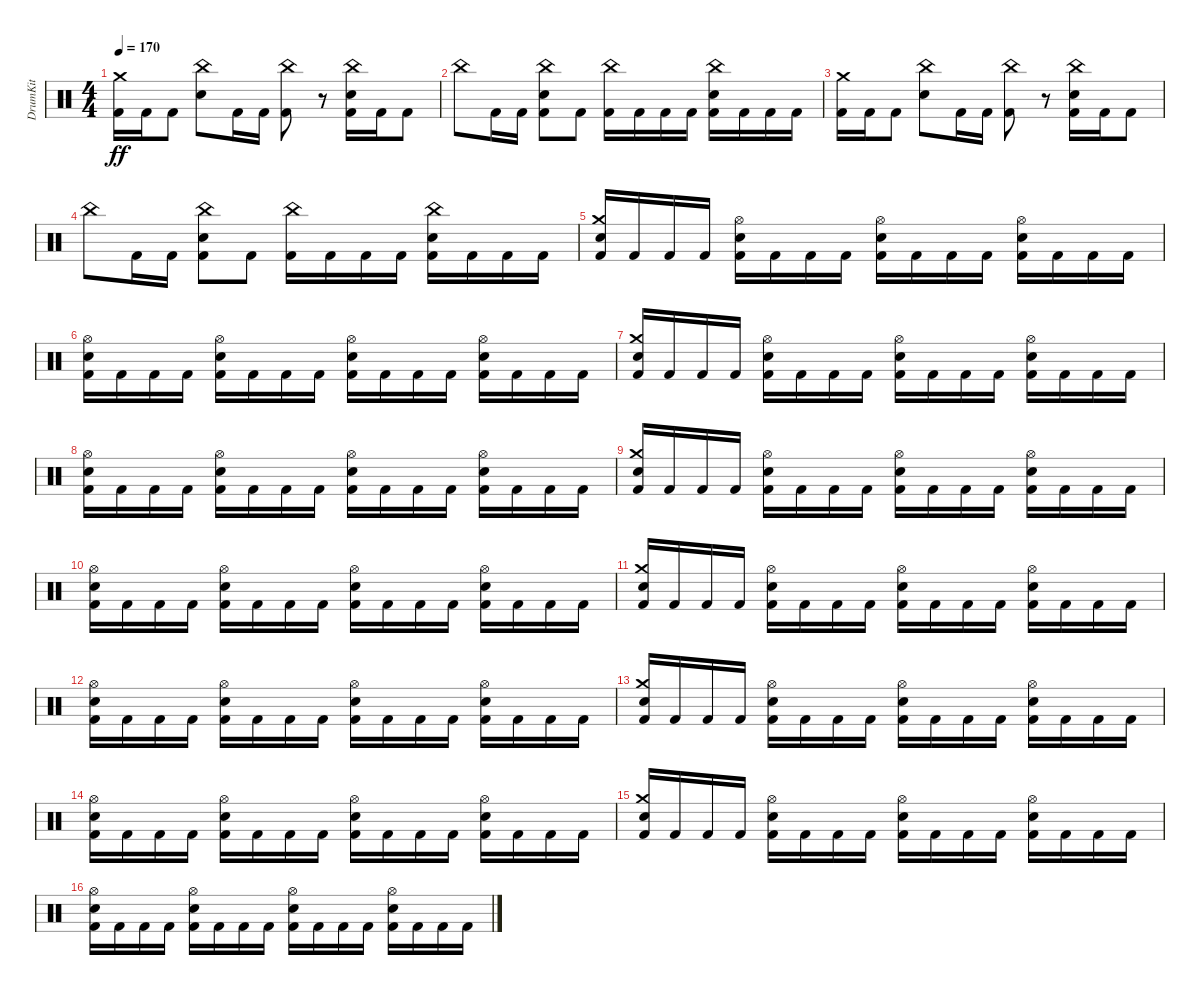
\track ("DrumKit" "DrumKit") {instrument percussion}
\staff {score}
\articulation defaults
\ts (4 4)
\tempo 170
\clef neutral
\ks c
("Kick (hit) 2" "Crash medium (hit)").16{dy ff} "Kick (hit) 2".16 "Kick (hit) 2".8 ("Snare (hit) 2" "China (hit)").8 "Kick (hit) 2".16 "Kick (hit) 2".16 ("Kick (hit) 2" "China (hit)").8 r.8 ("Kick (hit) 2" "Snare (hit) 2" "China (hit)").16 "Kick (hit) 2".16 "Kick (hit) 2".8 |
"China (hit)".8 "Kick (hit) 2".16 "Kick (hit) 2".16 ("Kick (hit) 2" "Snare (hit) 2" "China (hit)").8 "Kick (hit) 2".8 ("Kick (hit) 2" "China (hit)").16 "Kick (hit) 2".16 "Kick (hit) 2".16 "Kick (hit) 2".16 ("Kick (hit) 2" "Snare (hit) 2" "China (hit)").16 "Kick (hit) 2".16 "Kick (hit) 2".16 "Kick (hit) 2".16 |
("Kick (hit) 2" "Crash medium (hit)").16 "Kick (hit) 2".16 "Kick (hit) 2".8 ("Snare (hit) 2" "China (hit)").8 "Kick (hit) 2".16 "Kick (hit) 2".16 ("Kick (hit) 2" "China (hit)").8 r.8 ("Kick (hit) 2" "Snare (hit) 2" "China (hit)").16 "Kick (hit) 2".16 "Kick (hit) 2".8 |
"China (hit)".8 "Kick (hit) 2".16 "Kick (hit) 2".16 ("Kick (hit) 2" "Snare (hit) 2" "China (hit)").8 "Kick (hit) 2".8 ("Kick (hit) 2" "China (hit)").16 "Kick (hit) 2".16 "Kick (hit) 2".16 "Kick (hit) 2".16 ("Kick (hit) 2" "Snare (hit) 2" "China (hit)").16 "Kick (hit) 2".16 "Kick (hit) 2".16 "Kick (hit) 2".16 |
("Kick (hit) 2" "Snare (hit) 2" "Crash medium (hit)").16 "Kick (hit) 2".16 "Kick (hit) 2".16 "Kick (hit) 2".16 ("Kick (hit) 2" "Snare (hit) 2" "Hi-Hat (open)").16 "Kick (hit) 2".16 "Kick (hit) 2".16 "Kick (hit) 2".16 ("Kick (hit) 2" "Snare (hit) 2" "Hi-Hat (open)").16 "Kick (hit) 2".16 "Kick (hit) 2".16 "Kick (hit) 2".16 ("Kick (hit) 2" "Snare (hit) 2" "Hi-Hat (open)").16 "Kick (hit) 2".16 "Kick (hit) 2".16 "Kick (hit) 2".16 |
("Kick (hit) 2" "Snare (hit) 2" "Hi-Hat (open)").16 "Kick (hit) 2".16 "Kick (hit) 2".16 "Kick (hit) 2".16 ("Kick (hit) 2" "Snare (hit) 2" "Hi-Hat (open)").16 "Kick (hit) 2".16 "Kick (hit) 2".16 "Kick (hit) 2".16 ("Kick (hit) 2" "Snare (hit) 2" "Hi-Hat (open)").16 "Kick (hit) 2".16 "Kick (hit) 2".16 "Kick (hit) 2".16 ("Kick (hit) 2" "Snare (hit) 2" "Hi-Hat (open)").16 "Kick (hit) 2".16 "Kick (hit) 2".16 "Kick (hit) 2".16 |
("Kick (hit) 2" "Snare (hit) 2" "Crash medium (hit)").16 "Kick (hit) 2".16 "Kick (hit) 2".16 "Kick (hit) 2".16 ("Kick (hit) 2" "Snare (hit) 2" "Hi-Hat (open)").16 "Kick (hit) 2".16 "Kick (hit) 2".16 "Kick (hit) 2".16 ("Kick (hit) 2" "Snare (hit) 2" "Hi-Hat (open)").16 "Kick (hit) 2".16 "Kick (hit) 2".16 "Kick (hit) 2".16 ("Kick (hit) 2" "Snare (hit) 2" "Hi-Hat (open)").16 "Kick (hit) 2".16 "Kick (hit) 2".16 "Kick (hit) 2".16 |
("Kick (hit) 2" "Snare (hit) 2" "Hi-Hat (open)").16 "Kick (hit) 2".16 "Kick (hit) 2".16 "Kick (hit) 2".16 ("Kick (hit) 2" "Snare (hit) 2" "Hi-Hat (open)").16 "Kick (hit) 2".16 "Kick (hit) 2".16 "Kick (hit) 2".16 ("Kick (hit) 2" "Snare (hit) 2" "Hi-Hat (open)").16 "Kick (hit) 2".16 "Kick (hit) 2".16 "Kick (hit) 2".16 ("Kick (hit) 2" "Snare (hit) 2" "Hi-Hat (open)").16 "Kick (hit) 2".16 "Kick (hit) 2".16 "Kick (hit) 2".16 |
("Kick (hit) 2" "Snare (hit) 2" "Crash medium (hit)").16 "Kick (hit) 2".16 "Kick (hit) 2".16 "Kick (hit) 2".16 ("Kick (hit) 2" "Snare (hit) 2" "Hi-Hat (open)").16 "Kick (hit) 2".16 "Kick (hit) 2".16 "Kick (hit) 2".16 ("Kick (hit) 2" "Snare (hit) 2" "Hi-Hat (open)").16 "Kick (hit) 2".16 "Kick (hit) 2".16 "Kick (hit) 2".16 ("Kick (hit) 2" "Snare (hit) 2" "Hi-Hat (open)").16 "Kick (hit) 2".16 "Kick (hit) 2".16 "Kick (hit) 2".16 |
("Kick (hit) 2" "Snare (hit) 2" "Hi-Hat (open)").16 "Kick (hit) 2".16 "Kick (hit) 2".16 "Kick (hit) 2".16 ("Kick (hit) 2" "Snare (hit) 2" "Hi-Hat (open)").16 "Kick (hit) 2".16 "Kick (hit) 2".16 "Kick (hit) 2".16 ("Kick (hit) 2" "Snare (hit) 2" "Hi-Hat (open)").16 "Kick (hit) 2".16 "Kick (hit) 2".16 "Kick (hit) 2".16 ("Kick (hit) 2" "Snare (hit) 2" "Hi-Hat (open)").16 "Kick (hit) 2".16 "Kick (hit) 2".16 "Kick (hit) 2".16 |
("Kick (hit) 2" "Snare (hit) 2" "Crash medium (hit)").16 "Kick (hit) 2".16 "Kick (hit) 2".16 "Kick (hit) 2".16 ("Kick (hit) 2" "Snare (hit) 2" "Hi-Hat (open)").16 "Kick (hit) 2".16 "Kick (hit) 2".16 "Kick (hit) 2".16 ("Kick (hit) 2" "Snare (hit) 2" "Hi-Hat (open)").16 "Kick (hit) 2".16 "Kick (hit) 2".16 "Kick (hit) 2".16 ("Kick (hit) 2" "Snare (hit) 2" "Hi-Hat (open)").16 "Kick (hit) 2".16 "Kick (hit) 2".16 "Kick (hit) 2".16 |
("Kick (hit) 2" "Snare (hit) 2" "Hi-Hat (open)").16 "Kick (hit) 2".16 "Kick (hit) 2".16 "Kick (hit) 2".16 ("Kick (hit) 2" "Snare (hit) 2" "Hi-Hat (open)").16 "Kick (hit) 2".16 "Kick (hit) 2".16 "Kick (hit) 2".16 ("Kick (hit) 2" "Snare (hit) 2" "Hi-Hat (open)").16 "Kick (hit) 2".16 "Kick (hit) 2".16 "Kick (hit) 2".16 ("Kick (hit) 2" "Snare (hit) 2" "Hi-Hat (open)").16 "Kick (hit) 2".16 "Kick (hit) 2".16 "Kick (hit) 2".16 |
("Kick (hit) 2" "Snare (hit) 2" "Crash medium (hit)").16 "Kick (hit) 2".16 "Kick (hit) 2".16 "Kick (hit) 2".16 ("Kick (hit) 2" "Snare (hit) 2" "Hi-Hat (open)").16 "Kick (hit) 2".16 "Kick (hit) 2".16 "Kick (hit) 2".16 ("Kick (hit) 2" "Snare (hit) 2" "Hi-Hat (open)").16 "Kick (hit) 2".16 "Kick (hit) 2".16 "Kick (hit) 2".16 ("Kick (hit) 2" "Snare (hit) 2" "Hi-Hat (open)").16 "Kick (hit) 2".16 "Kick (hit) 2".16 "Kick (hit) 2".16 |
("Kick (hit) 2" "Snare (hit) 2" "Hi-Hat (open)").16 "Kick (hit) 2".16 "Kick (hit) 2".16 "Kick (hit) 2".16 ("Kick (hit) 2" "Snare (hit) 2" "Hi-Hat (open)").16 "Kick (hit) 2".16 "Kick (hit) 2".16 "Kick (hit) 2".16 ("Kick (hit) 2" "Snare (hit) 2" "Hi-Hat (open)").16 "Kick (hit) 2".16 "Kick (hit) 2".16 "Kick (hit) 2".16 ("Kick (hit) 2" "Snare (hit) 2" "Hi-Hat (open)").16 "Kick (hit) 2".16 "Kick (hit) 2".16 "Kick (hit) 2".16 |
("Kick (hit) 2" "Snare (hit) 2" "Crash medium (hit)").16 "Kick (hit) 2".16 "Kick (hit) 2".16 "Kick (hit) 2".16 ("Kick (hit) 2" "Snare (hit) 2" "Hi-Hat (open)").16 "Kick (hit) 2".16 "Kick (hit) 2".16 "Kick (hit) 2".16 ("Kick (hit) 2" "Snare (hit) 2" "Hi-Hat (open)").16 "Kick (hit) 2".16 "Kick (hit) 2".16 "Kick (hit) 2".16 ("Kick (hit) 2" "Snare (hit) 2" "Hi-Hat (open)").16 "Kick (hit) 2".16 "Kick (hit) 2".16 "Kick (hit) 2".16 |
("Kick (hit) 2" "Snare (hit) 2" "Hi-Hat (open)").16 "Kick (hit) 2".16 "Kick (hit) 2".16 "Kick (hit) 2".16 ("Kick (hit) 2" "Snare (hit) 2" "Hi-Hat (open)").16 "Kick (hit) 2".16 "Kick (hit) 2".16 "Kick (hit) 2".16 ("Kick (hit) 2" "Snare (hit) 2" "Hi-Hat (open)").16 "Kick (hit) 2".16 "Kick (hit) 2".16 "Kick (hit) 2".16 ("Kick (hit) 2" "Snare (hit) 2" "Hi-Hat (open)").16 "Kick (hit) 2".16 "Kick (hit) 2".16 "Kick (hit) 2".16
